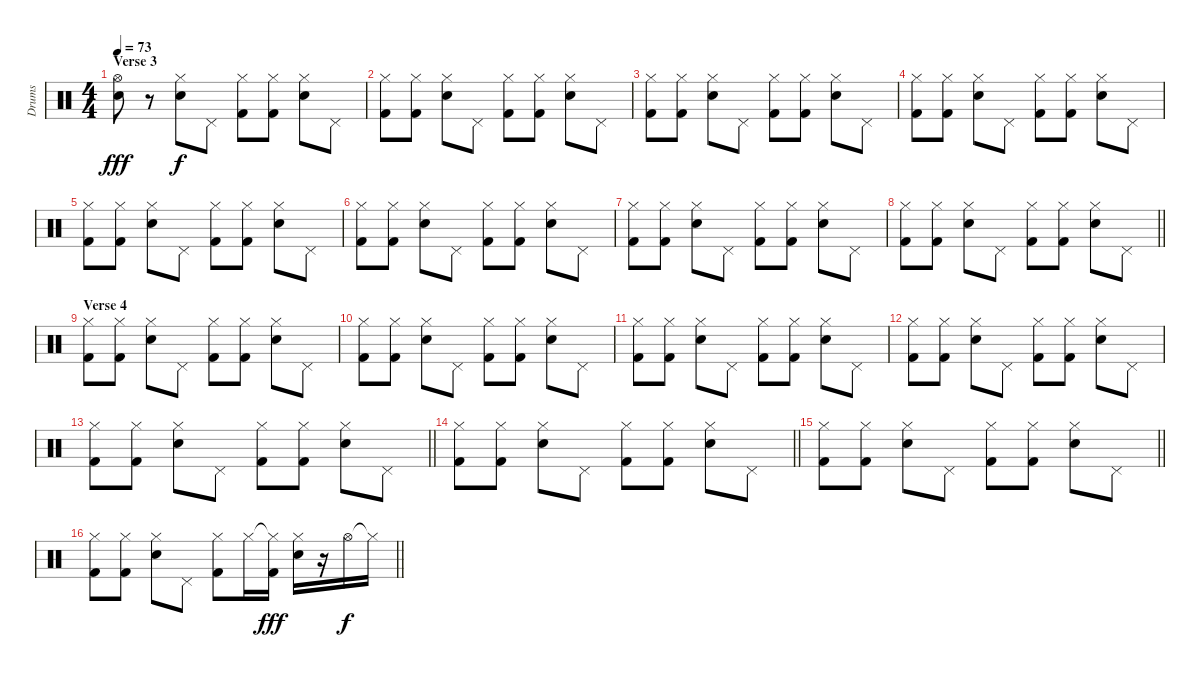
\track ("Drums" "Drums") {instrument percussion}
\staff {score}
\articulation defaults
\ts (4 4)
\section ("" "Verse 3")
\tempo 73
\clef neutral
\ks c
("Hi-Hat (open)" "Snare (hit) 2").8{dy fff} r.8 ("Hi-Hat (closed)" "Snare (hit) 2").8{dy f} "Pedal Hi-Hat (hit)".8 ("Hi-Hat (closed)" "Kick (hit) 2").8 ("Hi-Hat (closed)" "Kick (hit) 2").8 ("Hi-Hat (closed)" "Snare (hit) 2").8 "Pedal Hi-Hat (hit)".8 |
("Hi-Hat (closed)" "Kick (hit) 2").8 ("Hi-Hat (closed)" "Kick (hit) 2").8 ("Hi-Hat (closed)" "Snare (hit) 2").8 "Pedal Hi-Hat (hit)".8 ("Hi-Hat (closed)" "Kick (hit) 2").8 ("Hi-Hat (closed)" "Kick (hit) 2").8 ("Hi-Hat (closed)" "Snare (hit) 2").8 "Pedal Hi-Hat (hit)".8 |
("Hi-Hat (closed)" "Kick (hit) 2").8 ("Hi-Hat (closed)" "Kick (hit) 2").8 ("Hi-Hat (closed)" "Snare (hit) 2").8 "Pedal Hi-Hat (hit)".8 ("Hi-Hat (closed)" "Kick (hit) 2").8 ("Hi-Hat (closed)" "Kick (hit) 2").8 ("Hi-Hat (closed)" "Snare (hit) 2").8 "Pedal Hi-Hat (hit)".8 |
("Hi-Hat (closed)" "Kick (hit) 2").8 ("Hi-Hat (closed)" "Kick (hit) 2").8 ("Hi-Hat (closed)" "Snare (hit) 2").8 "Pedal Hi-Hat (hit)".8 ("Hi-Hat (closed)" "Kick (hit) 2").8 ("Hi-Hat (closed)" "Kick (hit) 2").8 ("Hi-Hat (closed)" "Snare (hit) 2").8 "Pedal Hi-Hat (hit)".8 |
("Hi-Hat (closed)" "Kick (hit) 2").8 ("Hi-Hat (closed)" "Kick (hit) 2").8 ("Hi-Hat (closed)" "Snare (hit) 2").8 "Pedal Hi-Hat (hit)".8 ("Hi-Hat (closed)" "Kick (hit) 2").8 ("Hi-Hat (closed)" "Kick (hit) 2").8 ("Hi-Hat (closed)" "Snare (hit) 2").8 "Pedal Hi-Hat (hit)".8 |
("Hi-Hat (closed)" "Kick (hit) 2").8 ("Hi-Hat (closed)" "Kick (hit) 2").8 ("Hi-Hat (closed)" "Snare (hit) 2").8 "Pedal Hi-Hat (hit)".8 ("Hi-Hat (closed)" "Kick (hit) 2").8 ("Hi-Hat (closed)" "Kick (hit) 2").8 ("Hi-Hat (closed)" "Snare (hit) 2").8 "Pedal Hi-Hat (hit)".8 |
("Hi-Hat (closed)" "Kick (hit) 2").8 ("Hi-Hat (closed)" "Kick (hit) 2").8 ("Hi-Hat (closed)" "Snare (hit) 2").8 "Pedal Hi-Hat (hit)".8 ("Hi-Hat (closed)" "Kick (hit) 2").8 ("Hi-Hat (closed)" "Kick (hit) 2").8 ("Hi-Hat (closed)" "Snare (hit) 2").8 "Pedal Hi-Hat (hit)".8 |
\barLineRight lightlight
("Hi-Hat (closed)" "Kick (hit) 2").8 ("Hi-Hat (closed)" "Kick (hit) 2").8 ("Hi-Hat (closed)" "Snare (hit) 2").8 "Pedal Hi-Hat (hit)".8 ("Hi-Hat (closed)" "Kick (hit) 2").8 ("Hi-Hat (closed)" "Kick (hit) 2").8 ("Hi-Hat (closed)" "Snare (hit) 2").8 "Pedal Hi-Hat (hit)".8 |
\section ("" "Verse 4")
("Hi-Hat (closed)" "Kick (hit) 2").8 ("Hi-Hat (closed)" "Kick (hit) 2").8 ("Hi-Hat (closed)" "Snare (hit) 2").8 "Pedal Hi-Hat (hit)".8 ("Hi-Hat (closed)" "Kick (hit) 2").8 ("Hi-Hat (closed)" "Kick (hit) 2").8 ("Hi-Hat (closed)" "Snare (hit) 2").8 "Pedal Hi-Hat (hit)".8 |
("Hi-Hat (closed)" "Kick (hit) 2").8 ("Hi-Hat (closed)" "Kick (hit) 2").8 ("Hi-Hat (closed)" "Snare (hit) 2").8 "Pedal Hi-Hat (hit)".8 ("Hi-Hat (closed)" "Kick (hit) 2").8 ("Hi-Hat (closed)" "Kick (hit) 2").8 ("Hi-Hat (closed)" "Snare (hit) 2").8 "Pedal Hi-Hat (hit)".8 |
("Hi-Hat (closed)" "Kick (hit) 2").8 ("Hi-Hat (closed)" "Kick (hit) 2").8 ("Hi-Hat (closed)" "Snare (hit) 2").8 "Pedal Hi-Hat (hit)".8 ("Hi-Hat (closed)" "Kick (hit) 2").8 ("Hi-Hat (closed)" "Kick (hit) 2").8 ("Hi-Hat (closed)" "Snare (hit) 2").8 "Pedal Hi-Hat (hit)".8 |
("Hi-Hat (closed)" "Kick (hit) 2").8 ("Hi-Hat (closed)" "Kick (hit) 2").8 ("Hi-Hat (closed)" "Snare (hit) 2").8 "Pedal Hi-Hat (hit)".8 ("Hi-Hat (closed)" "Kick (hit) 2").8 ("Hi-Hat (closed)" "Kick (hit) 2").8 ("Hi-Hat (closed)" "Snare (hit) 2").8 "Pedal Hi-Hat (hit)".8 |
\barLineRight lightlight
("Hi-Hat (closed)" "Kick (hit) 2").8 ("Hi-Hat (closed)" "Kick (hit) 2").8 ("Hi-Hat (closed)" "Snare (hit) 2").8 "Pedal Hi-Hat (hit)".8 ("Hi-Hat (closed)" "Kick (hit) 2").8 ("Hi-Hat (closed)" "Kick (hit) 2").8 ("Hi-Hat (closed)" "Snare (hit) 2").8 "Pedal Hi-Hat (hit)".8 |
\barLineRight lightlight
("Hi-Hat (closed)" "Kick (hit) 2").8 ("Hi-Hat (closed)" "Kick (hit) 2").8 ("Hi-Hat (closed)" "Snare (hit) 2").8 "Pedal Hi-Hat (hit)".8 ("Hi-Hat (closed)" "Kick (hit) 2").8 ("Hi-Hat (closed)" "Kick (hit) 2").8 ("Hi-Hat (closed)" "Snare (hit) 2").8 "Pedal Hi-Hat (hit)".8 |
\barLineRight lightlight
("Hi-Hat (closed)" "Kick (hit) 2").8 ("Hi-Hat (closed)" "Kick (hit) 2").8 ("Hi-Hat (closed)" "Snare (hit) 2").8 "Pedal Hi-Hat (hit)".8 ("Hi-Hat (closed)" "Kick (hit) 2").8 ("Hi-Hat (closed)" "Kick (hit) 2").8 ("Hi-Hat (closed)" "Snare (hit) 2").8 "Pedal Hi-Hat (hit)".8 |
\barLineRight lightlight
("Hi-Hat (closed)" "Kick (hit) 2").8 ("Hi-Hat (closed)" "Kick (hit) 2").8 ("Hi-Hat (closed)" "Snare (hit) 2").8 "Pedal Hi-Hat (hit)".8 ("Hi-Hat (closed)" "Kick (hit) 2").8 "Hi-Hat (closed)".16 ("Hi-Hat (closed)"{t} "Kick (hit) 2").16{dy fff} ("Hi-Hat (closed)" "Snare (hit) 2").16 r.16 "Hi-Hat (open)".16{dy f} "Hi-Hat (closed)"{t}.16
